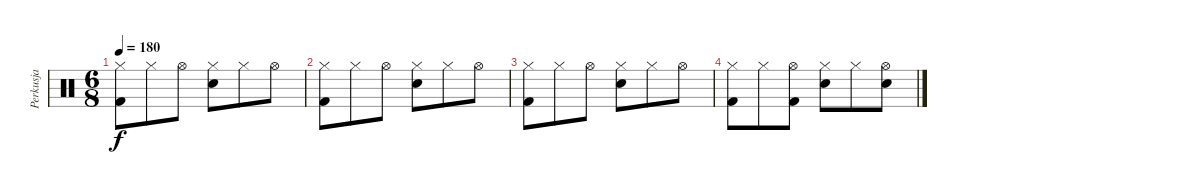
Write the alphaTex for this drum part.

\track ("Perkusja" "Perkusja") {instrument percussion}
\staff {score}
\articulation defaults
\ts (6 8)
\tempo 180
\clef neutral
\ks c
("Hi-Hat (closed)" "Kick (hit) 2").8{dy f} "Hi-Hat (closed)".8 "Hi-Hat (open)".8 ("Hi-Hat (closed)" "Snare (hit) 2").8 "Hi-Hat (closed)".8 "Hi-Hat (open)".8 |
("Hi-Hat (closed)" "Kick (hit) 2").8 "Hi-Hat (closed)".8 "Hi-Hat (open)".8 ("Hi-Hat (closed)" "Snare (hit) 2").8 "Hi-Hat (closed)".8 "Hi-Hat (open)".8 |
("Hi-Hat (closed)" "Kick (hit) 2").8 "Hi-Hat (closed)".8 "Hi-Hat (open)".8 ("Hi-Hat (closed)" "Snare (hit) 2").8 "Hi-Hat (closed)".8 "Hi-Hat (open)".8 |
("Hi-Hat (closed)" "Kick (hit) 2").8 "Hi-Hat (closed)".8 ("Hi-Hat (open)" "Kick (hit) 2").8 ("Hi-Hat (closed)" "Snare (hit) 2").8 "Hi-Hat (closed)".8 ("Hi-Hat (open)" "Snare (hit) 2").8
